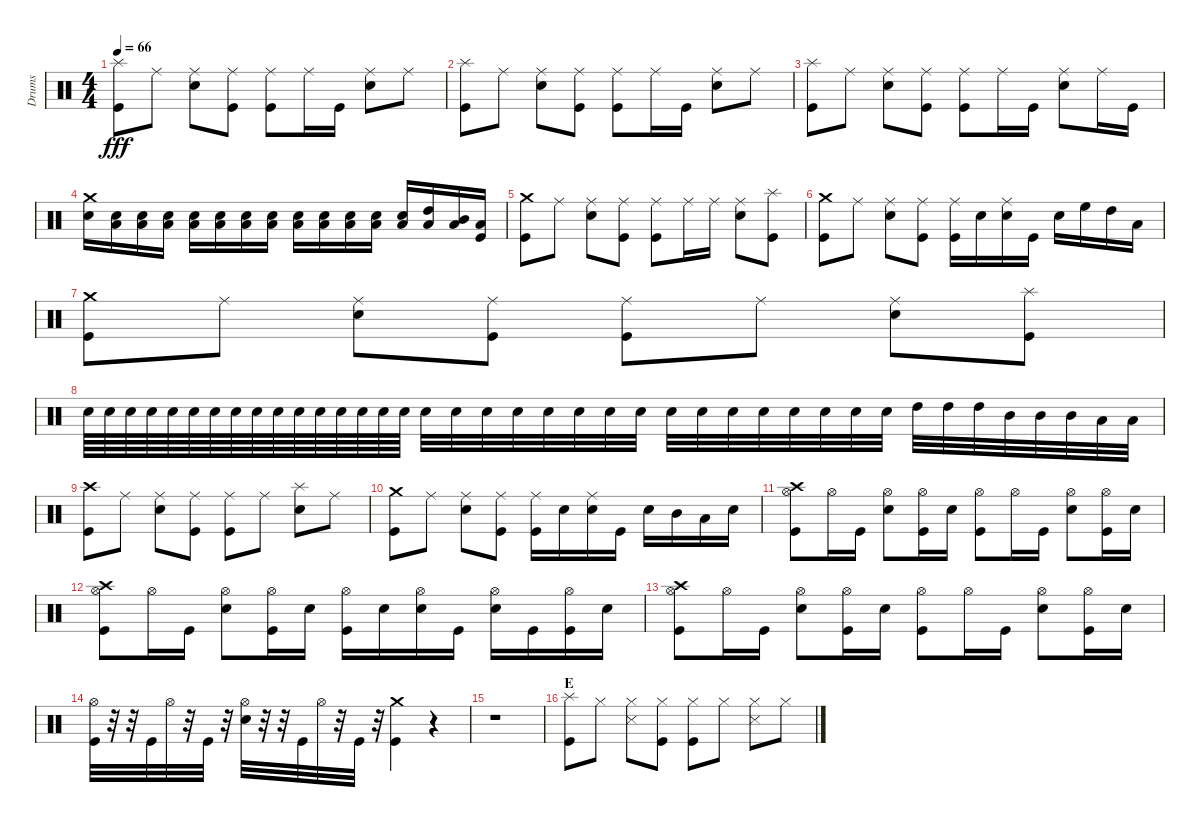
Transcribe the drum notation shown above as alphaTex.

\track ("Drums" "Drums") {instrument percussion}
\staff {score}
\articulation defaults
\ts (4 4)
\tempo 66
\clef neutral
\ks c
("Splash (hit)" "Kick (hit)").8{dy fff} "Ride (middle)".8 ("Ride (middle)" "Snare (hit) 2").8 ("Ride (middle)" "Kick (hit)").8 ("Ride (middle)" "Kick (hit)").8 "Ride (middle)".16 "Kick (hit)".16 ("Ride (middle)" "Snare (hit) 2").8 "Ride (middle)".8 |
("Splash (hit)" "Kick (hit)").8 "Ride (middle)".8 ("Ride (middle)" "Snare (hit) 2").8 ("Ride (middle)" "Kick (hit)").8 ("Ride (middle)" "Kick (hit)").8 "Ride (middle)".16 "Kick (hit)".16 ("Ride (middle)" "Snare (hit) 2").8 "Ride (middle)".8 |
("Splash (hit)" "Kick (hit)").8 "Ride (middle)".8 ("Ride (middle)" "Snare (hit) 2").8 ("Ride (middle)" "Kick (hit)").8 ("Ride (middle)" "Kick (hit)").8 "Ride (middle)".16 "Kick (hit)".16 ("Ride (middle)" "Snare (hit) 2").8 "Ride (middle)".16 "Kick (hit)".16 |
("Crash medium (hit)" "Snare (hit) 2").16 ("Snare (hit) 2" "Low Tom (hit)").16 ("Snare (hit) 2" "Low Tom (hit)").16 ("Snare (hit) 2" "Low Tom (hit)").16 ("Snare (hit) 2" "Low Tom (hit)").16 ("Snare (hit) 2" "Low Tom (hit)").16 ("Snare (hit) 2" "Low Tom (hit)").16 ("Snare (hit) 2" "Low Tom (hit)").16 ("Snare (hit) 2" "Low Tom (hit)").16 ("Snare (hit) 2" "Low Tom (hit)").16 ("Snare (hit) 2" "Low Tom (hit)").16 ("Snare (hit) 2" "Low Tom (hit)").16 ("Snare (hit) 2" "Low Tom (hit)").16 ("High Tom (hit)" "Low Tom (hit)").16 ("Mid Tom (hit)" "Low Tom (hit)").16 ("Low Tom (hit)" "Kick (hit)").16 |
("Crash medium (hit)" "Kick (hit)").8 "Ride (middle)".8 ("Ride (middle)" "Snare (hit) 2").8 ("Ride (middle)" "Kick (hit)").8 ("Ride (middle)" "Kick (hit)").8 "Ride (middle)".16 "Ride (middle)".16 ("Ride (middle)" "Snare (hit) 2").8 ("Splash (hit)" "Kick (hit)").8 |
("Crash medium (hit)" "Kick (hit)").8 "Ride (middle)".8 ("Ride (middle)" "Snare (hit) 2").8 ("Ride (middle)" "Kick (hit)").8 ("Ride (middle)" "Kick (hit)").16 "Snare (hit) 2".16 ("Ride (middle)" "Snare (hit) 2").16 "Kick (hit)".16 "Snare (hit) 2".16 "High Floor Tom (hit)".16 "High Tom (hit)".16 "Low Tom (hit)".16 |
("Crash medium (hit)" "Kick (hit)").8 "Ride (middle)".8 ("Ride (middle)" "Snare (hit) 2").8 ("Ride (middle)" "Kick (hit)").8 ("Ride (middle)" "Kick (hit)").8 "Ride (middle)".8 ("Ride (middle)" "Snare (hit) 2").8 ("Splash (hit)" "Kick (hit)").8 |
"Snare (hit) 2".64 "Snare (hit) 2".64 "Snare (hit) 2".64 "Snare (hit) 2".64 "Snare (hit) 2".64 "Snare (hit) 2".64 "Snare (hit) 2".64 "Snare (hit) 2".64 "Snare (hit) 2".64 "Snare (hit) 2".64 "Snare (hit) 2".64 "Snare (hit) 2".64 "Snare (hit) 2".64 "Snare (hit) 2".64 "Snare (hit) 2".64 "Snare (hit) 2".64 "Snare (hit) 2".32 "Snare (hit) 2".32 "Snare (hit) 2".32 "Snare (hit) 2".32 "Snare (hit) 2".32 "Snare (hit) 2".32 "Snare (hit) 2".32 "Snare (hit) 2".32 "Snare (hit) 2".32 "Snare (hit) 2".32 "Snare (hit) 2".32 "Snare (hit) 2".32 "Snare (hit) 2".32 "Snare (hit) 2".32 "Snare (hit) 2".32 "Snare (hit) 2".32 "High Tom (hit)".32 "High Tom (hit)".32 "High Tom (hit)".32 "Mid Tom (hit)".32 "Mid Tom (hit)".32 "Mid Tom (hit)".32 "Low Tom (hit)".32 "Low Tom (hit)".32 |
("Crash high (hit)" "Kick (hit)").8 "Ride (middle)".8 ("Ride (middle)" "Snare (hit) 2").8 ("Ride (middle)" "Kick (hit)").8 ("Ride (middle)" "Kick (hit)").8 "Ride (middle)".8 ("Splash (hit)" "Snare (hit) 2").8 "Ride (middle)".8 |
("Crash medium (hit)" "Kick (hit)").8 "Ride (middle)".8 ("Ride (middle)" "Snare (hit) 2").8 ("Ride (middle)" "Kick (hit)").8 ("Ride (middle)" "Kick (hit)").16 "Snare (hit) 2".16 ("Ride (middle)" "Snare (hit) 2").16 "Kick (hit)".16 "Snare (hit) 2".16 "Mid Tom (hit)".16 "Low Tom (hit)".16 "Snare (hit) 2".16 |
("Hi-Hat (open)" "Crash high (hit)" "Kick (hit)").8 "Hi-Hat (open)".16 "Kick (hit)".16 ("Hi-Hat (open)" "Snare (hit) 2").8 ("Hi-Hat (open)" "Kick (hit)").16 "Snare (hit) 2".16 ("Hi-Hat (open)" "Kick (hit)").8 "Hi-Hat (open)".16 "Kick (hit)".16 ("Hi-Hat (open)" "Snare (hit) 2").8 ("Hi-Hat (open)" "Kick (hit)").16 "Snare (hit) 2".16 |
("Hi-Hat (open)" "Crash high (hit)" "Kick (hit)").8 "Hi-Hat (open)".16 "Kick (hit)".16 ("Hi-Hat (open)" "Snare (hit) 2").8 ("Hi-Hat (open)" "Kick (hit)").16 "Snare (hit) 2".16 ("Hi-Hat (open)" "Kick (hit)").16 "Snare (hit) 2".16 ("Hi-Hat (open)" "Snare (hit) 2").16 "Kick (hit)".16 ("Hi-Hat (open)" "Snare (hit) 2").16 "Kick (hit)".16 ("Hi-Hat (open)" "Kick (hit)").16 "Snare (hit) 2".16 |
("Hi-Hat (open)" "Crash high (hit)" "Kick (hit)").8 "Hi-Hat (open)".16 "Kick (hit)".16 ("Hi-Hat (open)" "Snare (hit) 2").8 ("Hi-Hat (open)" "Kick (hit)").16 "Snare (hit) 2".16 ("Hi-Hat (open)" "Kick (hit)").8 "Hi-Hat (open)".16 "Kick (hit)".16 ("Hi-Hat (open)" "Snare (hit) 2").8 ("Hi-Hat (open)" "Kick (hit)").16 "Snare (hit) 2".16 |
("Hi-Hat (open)" "Kick (hit)").32 r.32 r.32 "Kick (hit)".32 "Hi-Hat (open)".32 r.32 "Kick (hit)".32 r.32 ("Hi-Hat (open)" "Snare (hit) 2").32 r.32 r.32 "Kick (hit)".32 "Hi-Hat (open)".32 r.32 "Kick (hit)".32 r.32 ("Crash medium (hit)" "Kick (hit)").4 r.4 |
r.1 |
\section ("" "E")
("Splash (hit)" "Kick (hit)").8 "Hi-Hat (closed)".8 ("Hi-Hat (closed)" "Snare (side stick) 3").8 ("Hi-Hat (closed)" "Kick (hit)").8 ("Hi-Hat (closed)" "Kick (hit)").8 "Hi-Hat (closed)".8 ("Hi-Hat (closed)" "Snare (side stick) 3").8 "Hi-Hat (closed)".8
